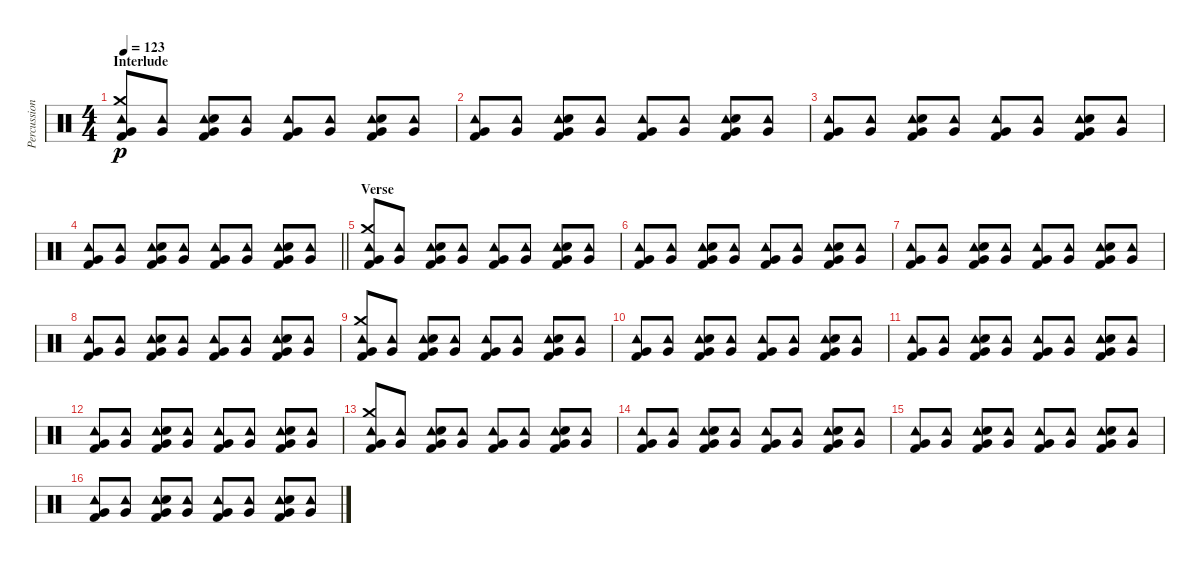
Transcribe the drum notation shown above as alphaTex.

\track ("Percussion" "Percussion") {instrument percussion}
\staff {score}
\articulation defaults
\ts (4 4)
\section ("" "Interlude")
\tempo 123
\clef neutral
\ks c
("Tambourine (hit)" "Crash medium (hit)" "Very Low Tom (hit)" "Kick (hit) 2").8{dy p} ("Tambourine (hit)" "Very Low Tom (hit)").8 ("Tambourine (hit)" "Very Low Tom (hit)" "Snare (hit) 2" "Kick (hit) 2").8 ("Tambourine (hit)" "Very Low Tom (hit)").8 ("Tambourine (hit)" "Very Low Tom (hit)" "Kick (hit) 2").8 ("Tambourine (hit)" "Very Low Tom (hit)").8 ("Tambourine (hit)" "Very Low Tom (hit)" "Snare (hit) 2" "Kick (hit) 2").8 ("Tambourine (hit)" "Very Low Tom (hit)").8 |
("Tambourine (hit)" "Very Low Tom (hit)" "Kick (hit) 2").8 ("Tambourine (hit)" "Very Low Tom (hit)").8 ("Tambourine (hit)" "Very Low Tom (hit)" "Snare (hit) 2" "Kick (hit) 2").8 ("Tambourine (hit)" "Very Low Tom (hit)").8 ("Tambourine (hit)" "Very Low Tom (hit)" "Kick (hit) 2").8 ("Tambourine (hit)" "Very Low Tom (hit)").8 ("Tambourine (hit)" "Very Low Tom (hit)" "Snare (hit) 2" "Kick (hit) 2").8 ("Tambourine (hit)" "Very Low Tom (hit)").8 |
("Tambourine (hit)" "Very Low Tom (hit)" "Kick (hit) 2").8 ("Tambourine (hit)" "Very Low Tom (hit)").8 ("Tambourine (hit)" "Very Low Tom (hit)" "Snare (hit) 2" "Kick (hit) 2").8 ("Tambourine (hit)" "Very Low Tom (hit)").8 ("Tambourine (hit)" "Very Low Tom (hit)" "Kick (hit) 2").8 ("Tambourine (hit)" "Very Low Tom (hit)").8 ("Tambourine (hit)" "Very Low Tom (hit)" "Snare (hit) 2" "Kick (hit) 2").8 ("Tambourine (hit)" "Very Low Tom (hit)").8 |
\barLineRight lightlight
("Tambourine (hit)" "Very Low Tom (hit)" "Kick (hit) 2").8 ("Tambourine (hit)" "Very Low Tom (hit)").8 ("Tambourine (hit)" "Very Low Tom (hit)" "Snare (hit) 2" "Kick (hit) 2").8 ("Tambourine (hit)" "Very Low Tom (hit)").8 ("Tambourine (hit)" "Very Low Tom (hit)" "Kick (hit) 2").8 ("Tambourine (hit)" "Very Low Tom (hit)").8 ("Tambourine (hit)" "Very Low Tom (hit)" "Snare (hit) 2" "Kick (hit) 2").8 ("Tambourine (hit)" "Very Low Tom (hit)").8 |
\section ("" "Verse")
("Tambourine (hit)" "Crash medium (hit)" "Very Low Tom (hit)" "Kick (hit) 2").8 ("Tambourine (hit)" "Very Low Tom (hit)").8 ("Tambourine (hit)" "Very Low Tom (hit)" "Snare (hit) 2" "Kick (hit) 2").8 ("Tambourine (hit)" "Very Low Tom (hit)").8 ("Tambourine (hit)" "Very Low Tom (hit)" "Kick (hit) 2").8 ("Tambourine (hit)" "Very Low Tom (hit)").8 ("Tambourine (hit)" "Very Low Tom (hit)" "Snare (hit) 2" "Kick (hit) 2").8 ("Tambourine (hit)" "Very Low Tom (hit)").8 |
("Tambourine (hit)" "Very Low Tom (hit)" "Kick (hit) 2").8 ("Tambourine (hit)" "Very Low Tom (hit)").8 ("Tambourine (hit)" "Very Low Tom (hit)" "Snare (hit) 2" "Kick (hit) 2").8 ("Tambourine (hit)" "Very Low Tom (hit)").8 ("Tambourine (hit)" "Very Low Tom (hit)" "Kick (hit) 2").8 ("Tambourine (hit)" "Very Low Tom (hit)").8 ("Tambourine (hit)" "Very Low Tom (hit)" "Snare (hit) 2" "Kick (hit) 2").8 ("Tambourine (hit)" "Very Low Tom (hit)").8 |
("Tambourine (hit)" "Very Low Tom (hit)" "Kick (hit) 2").8 ("Tambourine (hit)" "Very Low Tom (hit)").8 ("Tambourine (hit)" "Very Low Tom (hit)" "Snare (hit) 2" "Kick (hit) 2").8 ("Tambourine (hit)" "Very Low Tom (hit)").8 ("Tambourine (hit)" "Very Low Tom (hit)" "Kick (hit) 2").8 ("Tambourine (hit)" "Very Low Tom (hit)").8 ("Tambourine (hit)" "Very Low Tom (hit)" "Snare (hit) 2" "Kick (hit) 2").8 ("Tambourine (hit)" "Very Low Tom (hit)").8 |
("Tambourine (hit)" "Very Low Tom (hit)" "Kick (hit) 2").8 ("Tambourine (hit)" "Very Low Tom (hit)").8 ("Tambourine (hit)" "Very Low Tom (hit)" "Snare (hit) 2" "Kick (hit) 2").8 ("Tambourine (hit)" "Very Low Tom (hit)").8 ("Tambourine (hit)" "Very Low Tom (hit)" "Kick (hit) 2").8 ("Tambourine (hit)" "Very Low Tom (hit)").8 ("Tambourine (hit)" "Very Low Tom (hit)" "Snare (hit) 2" "Kick (hit) 2").8 ("Tambourine (hit)" "Very Low Tom (hit)").8 |
("Tambourine (hit)" "Crash medium (hit)" "Very Low Tom (hit)" "Kick (hit) 2").8 ("Tambourine (hit)" "Very Low Tom (hit)").8 ("Tambourine (hit)" "Very Low Tom (hit)" "Snare (hit) 2" "Kick (hit) 2").8 ("Tambourine (hit)" "Very Low Tom (hit)").8 ("Tambourine (hit)" "Very Low Tom (hit)" "Kick (hit) 2").8 ("Tambourine (hit)" "Very Low Tom (hit)").8 ("Tambourine (hit)" "Very Low Tom (hit)" "Snare (hit) 2" "Kick (hit) 2").8 ("Tambourine (hit)" "Very Low Tom (hit)").8 |
("Tambourine (hit)" "Very Low Tom (hit)" "Kick (hit) 2").8 ("Tambourine (hit)" "Very Low Tom (hit)").8 ("Tambourine (hit)" "Very Low Tom (hit)" "Snare (hit) 2" "Kick (hit) 2").8 ("Tambourine (hit)" "Very Low Tom (hit)").8 ("Tambourine (hit)" "Very Low Tom (hit)" "Kick (hit) 2").8 ("Tambourine (hit)" "Very Low Tom (hit)").8 ("Tambourine (hit)" "Very Low Tom (hit)" "Snare (hit) 2" "Kick (hit) 2").8 ("Tambourine (hit)" "Very Low Tom (hit)").8 |
("Tambourine (hit)" "Very Low Tom (hit)" "Kick (hit) 2").8 ("Tambourine (hit)" "Very Low Tom (hit)").8 ("Tambourine (hit)" "Very Low Tom (hit)" "Snare (hit) 2" "Kick (hit) 2").8 ("Tambourine (hit)" "Very Low Tom (hit)").8 ("Tambourine (hit)" "Very Low Tom (hit)" "Kick (hit) 2").8 ("Tambourine (hit)" "Very Low Tom (hit)").8 ("Tambourine (hit)" "Very Low Tom (hit)" "Snare (hit) 2" "Kick (hit) 2").8 ("Tambourine (hit)" "Very Low Tom (hit)").8 |
("Tambourine (hit)" "Very Low Tom (hit)" "Kick (hit) 2").8 ("Tambourine (hit)" "Very Low Tom (hit)").8 ("Tambourine (hit)" "Very Low Tom (hit)" "Snare (hit) 2" "Kick (hit) 2").8 ("Tambourine (hit)" "Very Low Tom (hit)").8 ("Tambourine (hit)" "Very Low Tom (hit)" "Kick (hit) 2").8 ("Tambourine (hit)" "Very Low Tom (hit)").8 ("Tambourine (hit)" "Very Low Tom (hit)" "Snare (hit) 2" "Kick (hit) 2").8 ("Tambourine (hit)" "Very Low Tom (hit)").8 |
("Tambourine (hit)" "Crash medium (hit)" "Very Low Tom (hit)" "Kick (hit) 2").8 ("Tambourine (hit)" "Very Low Tom (hit)").8 ("Tambourine (hit)" "Very Low Tom (hit)" "Snare (hit) 2" "Kick (hit) 2").8 ("Tambourine (hit)" "Very Low Tom (hit)").8 ("Tambourine (hit)" "Very Low Tom (hit)" "Kick (hit) 2").8 ("Tambourine (hit)" "Very Low Tom (hit)").8 ("Tambourine (hit)" "Very Low Tom (hit)" "Snare (hit) 2" "Kick (hit) 2").8 ("Tambourine (hit)" "Very Low Tom (hit)").8 |
("Tambourine (hit)" "Very Low Tom (hit)" "Kick (hit) 2").8 ("Tambourine (hit)" "Very Low Tom (hit)").8 ("Tambourine (hit)" "Very Low Tom (hit)" "Snare (hit) 2" "Kick (hit) 2").8 ("Tambourine (hit)" "Very Low Tom (hit)").8 ("Tambourine (hit)" "Very Low Tom (hit)" "Kick (hit) 2").8 ("Tambourine (hit)" "Very Low Tom (hit)").8 ("Tambourine (hit)" "Very Low Tom (hit)" "Snare (hit) 2" "Kick (hit) 2").8 ("Tambourine (hit)" "Very Low Tom (hit)").8 |
("Tambourine (hit)" "Very Low Tom (hit)" "Kick (hit) 2").8 ("Tambourine (hit)" "Very Low Tom (hit)").8 ("Tambourine (hit)" "Very Low Tom (hit)" "Snare (hit) 2" "Kick (hit) 2").8 ("Tambourine (hit)" "Very Low Tom (hit)").8 ("Tambourine (hit)" "Very Low Tom (hit)" "Kick (hit) 2").8 ("Tambourine (hit)" "Very Low Tom (hit)").8 ("Tambourine (hit)" "Very Low Tom (hit)" "Snare (hit) 2" "Kick (hit) 2").8 ("Tambourine (hit)" "Very Low Tom (hit)").8 |
("Tambourine (hit)" "Very Low Tom (hit)" "Kick (hit) 2").8 ("Tambourine (hit)" "Very Low Tom (hit)").8 ("Tambourine (hit)" "Very Low Tom (hit)" "Snare (hit) 2" "Kick (hit) 2").8 ("Tambourine (hit)" "Very Low Tom (hit)").8 ("Tambourine (hit)" "Very Low Tom (hit)" "Kick (hit) 2").8 ("Tambourine (hit)" "Very Low Tom (hit)").8 ("Tambourine (hit)" "Very Low Tom (hit)" "Snare (hit) 2" "Kick (hit) 2").8 ("Tambourine (hit)" "Very Low Tom (hit)").8
